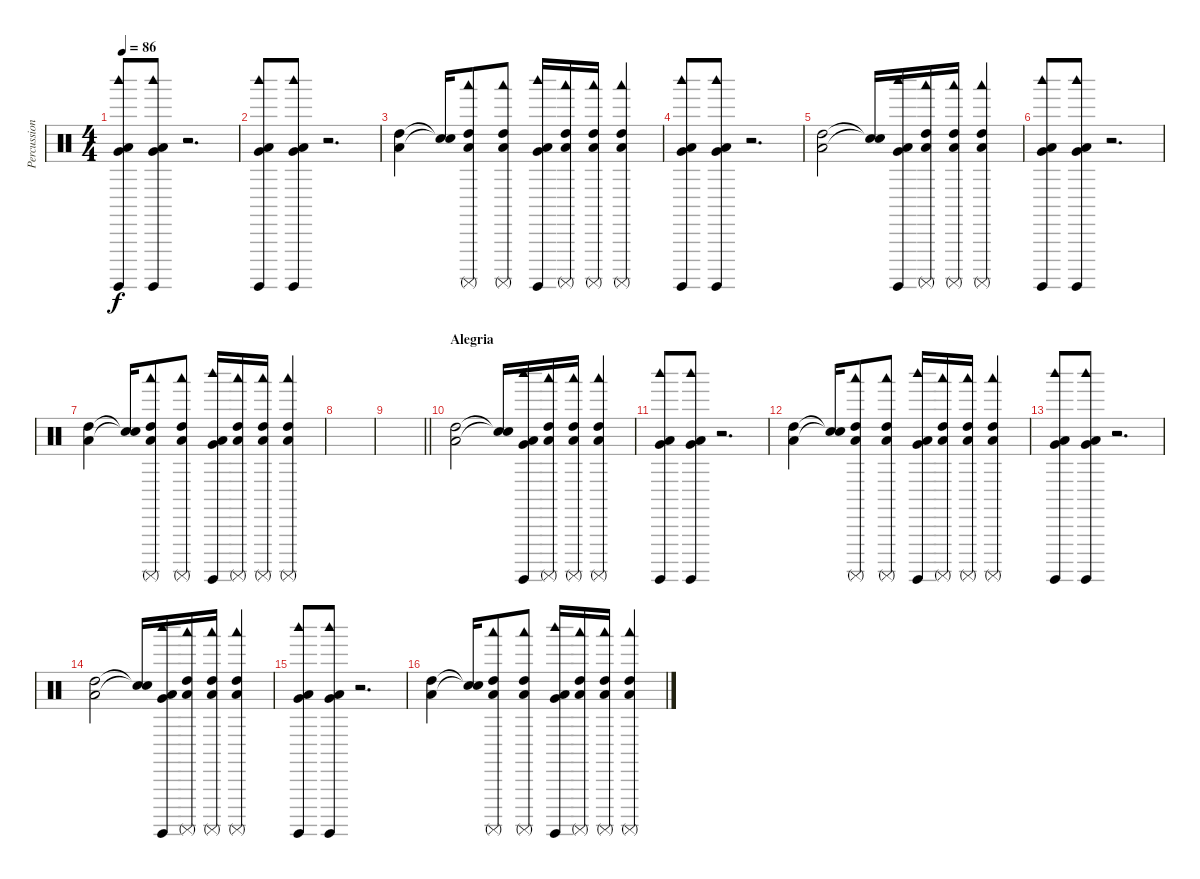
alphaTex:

\track ("Percussion 2" "Percussion") {instrument percussion}
\staff {score}
\articulation defaults
\ts (4 4)
\tempo 86
\clef neutral
\ks c
("Low Tom (hit)" "Woodblock high (hit)" "Surdo (hit)" "Very Low Tom (hit)").8{dy f} ("Low Tom (hit)" "Woodblock high (hit)" "Surdo (hit)" "Very Low Tom (hit)").8 r.2{d} |
("Low Tom (hit)" "Woodblock high (hit)" "Surdo (hit)" "Very Low Tom (hit)").8 ("Low Tom (hit)" "Woodblock high (hit)" "Surdo (hit)" "Very Low Tom (hit)").8 r.2{d} |
("High Tom (hit)" "Low Tom (hit)").4 ("Snare (hit)"{t} "Snare (hit)"{t}).16 ("High Tom (hit)" "Woodblock low (hit)" "Surdo (mute)" "Low Tom (hit)").8 ("High Tom (hit)" "Woodblock low (hit)" "Surdo (mute)" "Low Tom (hit)").8 ("Low Tom (hit)" "Woodblock high (hit)" "Surdo (hit)" "Very Low Tom (hit)").16 ("High Tom (hit)" "Woodblock low (hit)" "Surdo (mute)" "Low Tom (hit)").16 ("High Tom (hit)" "Woodblock low (hit)" "Surdo (mute)" "Low Tom (hit)").16 ("High Tom (hit)" "Woodblock low (hit)" "Surdo (mute)" "Low Tom (hit)").4 |
("Low Tom (hit)" "Woodblock high (hit)" "Surdo (hit)" "Very Low Tom (hit)").8 ("Low Tom (hit)" "Woodblock high (hit)" "Surdo (hit)" "Very Low Tom (hit)").8 r.2{d} |
("High Tom (hit)" "Low Tom (hit)").2 ("Snare (hit)"{t} "Snare (hit)"{t}).16 ("Low Tom (hit)" "Woodblock high (hit)" "Surdo (hit)" "Very Low Tom (hit)").16 ("High Tom (hit)" "Woodblock low (hit)" "Surdo (mute)" "Low Tom (hit)").16 ("High Tom (hit)" "Woodblock low (hit)" "Surdo (mute)" "Low Tom (hit)").16 ("High Tom (hit)" "Woodblock low (hit)" "Surdo (mute)" "Low Tom (hit)").4 |
("Low Tom (hit)" "Woodblock high (hit)" "Surdo (hit)" "Very Low Tom (hit)").8 ("Low Tom (hit)" "Woodblock high (hit)" "Surdo (hit)" "Very Low Tom (hit)").8 r.2{d} |
("High Tom (hit)" "Low Tom (hit)").4 ("Snare (hit)"{t} "Snare (hit)"{t}).16 ("High Tom (hit)" "Woodblock low (hit)" "Surdo (mute)" "Low Tom (hit)").8 ("High Tom (hit)" "Woodblock low (hit)" "Surdo (mute)" "Low Tom (hit)").8 ("Low Tom (hit)" "Woodblock high (hit)" "Surdo (hit)" "Very Low Tom (hit)").16 ("High Tom (hit)" "Woodblock low (hit)" "Surdo (mute)" "Low Tom (hit)").16 ("High Tom (hit)" "Woodblock low (hit)" "Surdo (mute)" "Low Tom (hit)").16 ("High Tom (hit)" "Woodblock low (hit)" "Surdo (mute)" "Low Tom (hit)").4 |
|
\barLineRight lightlight
|
\section ("" "Alegria")
("High Tom (hit)" "Low Tom (hit)").2 ("Snare (hit)"{t} "Snare (hit)"{t}).16 ("Low Tom (hit)" "Woodblock high (hit)" "Surdo (hit)" "Very Low Tom (hit)").16 ("High Tom (hit)" "Woodblock low (hit)" "Surdo (mute)" "Low Tom (hit)").16 ("High Tom (hit)" "Woodblock low (hit)" "Surdo (mute)" "Low Tom (hit)").16 ("High Tom (hit)" "Woodblock low (hit)" "Surdo (mute)" "Low Tom (hit)").4 |
("Low Tom (hit)" "Woodblock high (hit)" "Surdo (hit)" "Very Low Tom (hit)").8 ("Low Tom (hit)" "Woodblock high (hit)" "Surdo (hit)" "Very Low Tom (hit)").8 r.2{d} |
("High Tom (hit)" "Low Tom (hit)").4 ("Snare (hit)"{t} "Snare (hit)"{t}).16 ("High Tom (hit)" "Woodblock low (hit)" "Surdo (mute)" "Low Tom (hit)").8 ("High Tom (hit)" "Woodblock low (hit)" "Surdo (mute)" "Low Tom (hit)").8 ("Low Tom (hit)" "Woodblock high (hit)" "Surdo (hit)" "Very Low Tom (hit)").16 ("High Tom (hit)" "Woodblock low (hit)" "Surdo (mute)" "Low Tom (hit)").16 ("High Tom (hit)" "Woodblock low (hit)" "Surdo (mute)" "Low Tom (hit)").16 ("High Tom (hit)" "Woodblock low (hit)" "Surdo (mute)" "Low Tom (hit)").4 |
("Low Tom (hit)" "Woodblock high (hit)" "Surdo (hit)" "Very Low Tom (hit)").8 ("Low Tom (hit)" "Woodblock high (hit)" "Surdo (hit)" "Very Low Tom (hit)").8 r.2{d} |
("High Tom (hit)" "Low Tom (hit)").2 ("Snare (hit)"{t} "Snare (hit)"{t}).16 ("Low Tom (hit)" "Woodblock high (hit)" "Surdo (hit)" "Very Low Tom (hit)").16 ("High Tom (hit)" "Woodblock low (hit)" "Surdo (mute)" "Low Tom (hit)").16 ("High Tom (hit)" "Woodblock low (hit)" "Surdo (mute)" "Low Tom (hit)").16 ("High Tom (hit)" "Woodblock low (hit)" "Surdo (mute)" "Low Tom (hit)").4 |
("Low Tom (hit)" "Woodblock high (hit)" "Surdo (hit)" "Very Low Tom (hit)").8 ("Low Tom (hit)" "Woodblock high (hit)" "Surdo (hit)" "Very Low Tom (hit)").8 r.2{d} |
("High Tom (hit)" "Low Tom (hit)").4 ("Snare (hit)"{t} "Snare (hit)"{t}).16 ("High Tom (hit)" "Woodblock low (hit)" "Surdo (mute)" "Low Tom (hit)").8 ("High Tom (hit)" "Woodblock low (hit)" "Surdo (mute)" "Low Tom (hit)").8 ("Low Tom (hit)" "Woodblock high (hit)" "Surdo (hit)" "Very Low Tom (hit)").16 ("High Tom (hit)" "Woodblock low (hit)" "Surdo (mute)" "Low Tom (hit)").16 ("High Tom (hit)" "Woodblock low (hit)" "Surdo (mute)" "Low Tom (hit)").16 ("High Tom (hit)" "Woodblock low (hit)" "Surdo (mute)" "Low Tom (hit)").4
